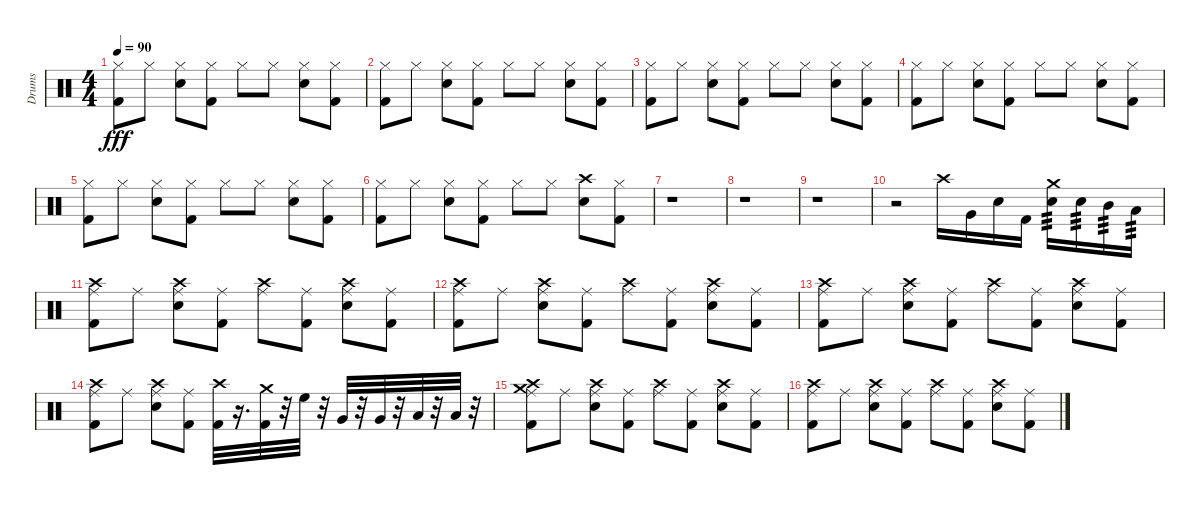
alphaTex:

\track ("Drums" "Drums") {instrument percussion}
\staff {score}
\articulation defaults
\ts (4 4)
\tempo 90
\clef neutral
\ks c
("Kick (hit) 2" "Hi-Hat (closed)").8{dy fff} "Hi-Hat (closed)".8 ("Snare (hit) 2" "Hi-Hat (closed)").8 ("Kick (hit) 2" "Hi-Hat (closed)").8 "Hi-Hat (closed)".8 "Hi-Hat (closed)".8 ("Snare (hit) 2" "Hi-Hat (closed)").8 ("Kick (hit) 2" "Hi-Hat (closed)").8 |
("Kick (hit) 2" "Hi-Hat (closed)").8 "Hi-Hat (closed)".8 ("Snare (hit) 2" "Hi-Hat (closed)").8 ("Kick (hit) 2" "Hi-Hat (closed)").8 "Hi-Hat (closed)".8 "Hi-Hat (closed)".8 ("Snare (hit) 2" "Hi-Hat (closed)").8 ("Kick (hit) 2" "Hi-Hat (closed)").8 |
("Kick (hit) 2" "Hi-Hat (closed)").8 "Hi-Hat (closed)".8 ("Snare (hit) 2" "Hi-Hat (closed)").8 ("Kick (hit) 2" "Hi-Hat (closed)").8 "Hi-Hat (closed)".8 "Hi-Hat (closed)".8 ("Snare (hit) 2" "Hi-Hat (closed)").8 ("Kick (hit) 2" "Hi-Hat (closed)").8 |
("Kick (hit) 2" "Hi-Hat (closed)").8 "Hi-Hat (closed)".8 ("Snare (hit) 2" "Hi-Hat (closed)").8 ("Kick (hit) 2" "Hi-Hat (closed)").8 "Hi-Hat (closed)".8 "Hi-Hat (closed)".8 ("Snare (hit) 2" "Hi-Hat (closed)").8 ("Kick (hit) 2" "Hi-Hat (closed)").8 |
("Kick (hit) 2" "Hi-Hat (closed)").8 "Hi-Hat (closed)".8 ("Snare (hit) 2" "Hi-Hat (closed)").8 ("Kick (hit) 2" "Hi-Hat (closed)").8 "Hi-Hat (closed)".8 "Hi-Hat (closed)".8 ("Snare (hit) 2" "Hi-Hat (closed)").8 ("Kick (hit) 2" "Hi-Hat (closed)").8 |
("Kick (hit) 2" "Hi-Hat (closed)").8 "Hi-Hat (closed)".8 ("Snare (hit) 2" "Hi-Hat (closed)").8 ("Kick (hit) 2" "Hi-Hat (closed)").8 "Hi-Hat (closed)".8 "Hi-Hat (closed)".8 ("Electric Snare (hit)" "Crash high (hit)").8 ("Kick (hit) 2" "Hi-Hat (closed)").8 |
r.1 |
r.1 |
r.1 |
r.2 "Crash high (hit)".16 "Very Low Tom (hit)".16 "Electric Snare (hit)".16 "Kick (hit) 2".16 ("Electric Snare (hit)" "Crash medium (hit)").16{tp 3} "Electric Snare (hit)".16{tp 3} "Mid Tom (hit)".16{tp 3} "Low Tom (hit)".16{tp 3} |
("Kick (hit) 2" "Crash high (hit)" "Ride (middle)").8 "Ride (middle)".8 ("Snare (hit) 2" "Crash high (hit)" "Ride (middle)").8 ("Kick (hit) 2" "Ride (middle)").8 ("Crash high (hit)" "Ride (middle)").8 ("Kick (hit) 2" "Ride (middle)").8 ("Snare (hit) 2" "Crash high (hit)" "Ride (middle)").8 ("Kick (hit) 2" "Ride (middle)").8 |
("Kick (hit) 2" "Crash high (hit)" "Ride (middle)").8 "Ride (middle)".8 ("Snare (hit) 2" "Crash high (hit)" "Ride (middle)").8 ("Kick (hit) 2" "Ride (middle)").8 ("Crash high (hit)" "Ride (middle)").8 ("Kick (hit) 2" "Ride (middle)").8 ("Snare (hit) 2" "Crash high (hit)" "Ride (middle)").8 ("Kick (hit) 2" "Ride (middle)").8 |
("Kick (hit) 2" "Crash high (hit)" "Ride (middle)").8 "Ride (middle)".8 ("Snare (hit) 2" "Crash high (hit)" "Ride (middle)").8 ("Kick (hit) 2" "Ride (middle)").8 ("Crash high (hit)" "Ride (middle)").8 ("Kick (hit) 2" "Ride (middle)").8 ("Snare (hit) 2" "Crash high (hit)" "Ride (middle)").8 ("Kick (hit) 2" "Ride (middle)").8 |
("Kick (hit) 2" "Crash high (hit)" "Ride (middle)").8 "Ride (middle)".8 ("Snare (hit) 2" "Crash high (hit)" "Ride (middle)").8 ("Kick (hit) 2" "Ride (middle)").8 ("Kick (hit) 2" "Crash high (hit)").32 r.16{d} ("Crash medium (hit)" "Kick (hit) 2").32 r.32 "High Floor Tom (hit)".32 r.32 "Very Low Tom (hit)".32 r.32 "Very Low Tom (hit)".32 r.32 "Low Floor Tom (hit)".32 r.32 "Low Floor Tom (hit)".32 r.32 |
("Kick (hit) 2" "Crash high (hit)" "Ride (middle)" "Crash medium (hit)").8 "Ride (middle)".8 ("Snare (hit) 2" "Crash high (hit)" "Ride (middle)").8 ("Kick (hit) 2" "Ride (middle)").8 ("Crash high (hit)" "Ride (middle)").8 ("Kick (hit) 2" "Ride (middle)").8 ("Snare (hit) 2" "Crash high (hit)" "Ride (middle)").8 ("Kick (hit) 2" "Ride (middle)").8 |
("Kick (hit) 2" "Crash high (hit)" "Ride (middle)").8 "Ride (middle)".8 ("Snare (hit) 2" "Crash high (hit)" "Ride (middle)").8 ("Kick (hit) 2" "Ride (middle)").8 ("Crash high (hit)" "Ride (middle)").8 ("Kick (hit) 2" "Ride (middle)").8 ("Snare (hit) 2" "Crash high (hit)" "Ride (middle)").8 ("Kick (hit) 2" "Ride (middle)").8
